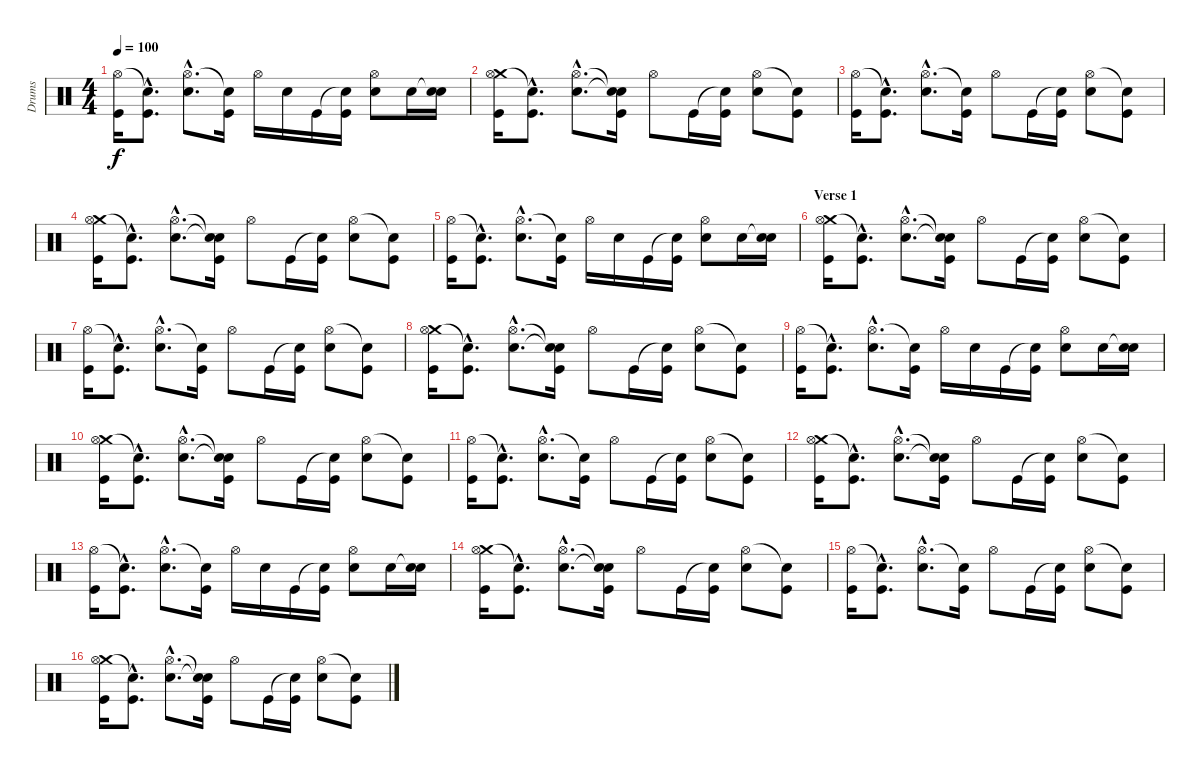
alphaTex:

\track ("Drums" "Drums") {instrument percussion}
\staff {score}
\articulation defaults
\ts (4 4)
\tempo 100
\clef neutral
\ks c
("Hi-Hat (open)" "Kick (hit)").16{dy f} ("Snare (hit)"{hac t} "Kick (hit)"{hac}).8{d} ("Hi-Hat (open)"{hac} "Electric Snare (hit)"{hac}).8{d} ("Snare (hit)"{t} "Kick (hit)").16 "Hi-Hat (open)".16 "Electric Snare (hit)".16 "Kick (hit)".16 ("Snare (hit)"{t} "Kick (hit)").16 ("Hi-Hat (open)" "Electric Snare (hit)").8 "Electric Snare (hit)".16 ("Snare (hit)"{t} "Electric Snare (hit)").16 |
("Crash medium (hit)" "Hi-Hat (open)" "Kick (hit)").16 ("Snare (hit)"{hac t} "Kick (hit)"{hac}).8{d} ("Hi-Hat (open)"{hac} "Electric Snare (hit)"{hac}).8{d} ("Snare (hit)"{t} "Snare (hit)"{t} "Kick (hit)").16 "Hi-Hat (open)".8 "Kick (hit)".16 ("Snare (hit)"{t} "Kick (hit)").16 ("Hi-Hat (open)" "Electric Snare (hit)").8 ("Snare (hit)"{t} "Kick (hit)").8 |
("Hi-Hat (open)" "Kick (hit)").16 ("Snare (hit)"{hac t} "Kick (hit)"{hac}).8{d} ("Hi-Hat (open)"{hac} "Electric Snare (hit)"{hac}).8{d} ("Snare (hit)"{t} "Kick (hit)").16 "Hi-Hat (open)".8 "Kick (hit)".16 ("Snare (hit)"{t} "Kick (hit)").16 ("Hi-Hat (open)" "Electric Snare (hit)").8 ("Snare (hit)"{t} "Kick (hit)").8 |
("Crash medium (hit)" "Hi-Hat (open)" "Kick (hit)").16 ("Snare (hit)"{hac t} "Kick (hit)"{hac}).8{d} ("Hi-Hat (open)"{hac} "Electric Snare (hit)"{hac}).8{d} ("Snare (hit)"{t} "Snare (hit)"{t} "Kick (hit)").16 "Hi-Hat (open)".8 "Kick (hit)".16 ("Snare (hit)"{t} "Kick (hit)").16 ("Hi-Hat (open)" "Electric Snare (hit)").8 ("Snare (hit)"{t} "Kick (hit)").8 |
("Hi-Hat (open)" "Kick (hit)").16 ("Snare (hit)"{hac t} "Kick (hit)"{hac}).8{d} ("Hi-Hat (open)"{hac} "Electric Snare (hit)"{hac}).8{d} ("Snare (hit)"{t} "Kick (hit)").16 "Hi-Hat (open)".16 "Electric Snare (hit)".16 "Kick (hit)".16 ("Snare (hit)"{t} "Kick (hit)").16 ("Hi-Hat (open)" "Electric Snare (hit)").8 "Electric Snare (hit)".16 ("Snare (hit)"{t} "Electric Snare (hit)").16 |
\section ("" "Verse 1")
("Crash medium (hit)" "Hi-Hat (open)" "Kick (hit)").16 ("Snare (hit)"{hac t} "Kick (hit)"{hac}).8{d} ("Hi-Hat (open)"{hac} "Electric Snare (hit)"{hac}).8{d} ("Snare (hit)"{t} "Snare (hit)"{t} "Kick (hit)").16 "Hi-Hat (open)".8 "Kick (hit)".16 ("Snare (hit)"{t} "Kick (hit)").16 ("Hi-Hat (open)" "Electric Snare (hit)").8 ("Snare (hit)"{t} "Kick (hit)").8 |
("Hi-Hat (open)" "Kick (hit)").16 ("Snare (hit)"{hac t} "Kick (hit)"{hac}).8{d} ("Hi-Hat (open)"{hac} "Electric Snare (hit)"{hac}).8{d} ("Snare (hit)"{t} "Kick (hit)").16 "Hi-Hat (open)".8 "Kick (hit)".16 ("Snare (hit)"{t} "Kick (hit)").16 ("Hi-Hat (open)" "Electric Snare (hit)").8 ("Snare (hit)"{t} "Kick (hit)").8 |
("Crash medium (hit)" "Hi-Hat (open)" "Kick (hit)").16 ("Snare (hit)"{hac t} "Kick (hit)"{hac}).8{d} ("Hi-Hat (open)"{hac} "Electric Snare (hit)"{hac}).8{d} ("Snare (hit)"{t} "Snare (hit)"{t} "Kick (hit)").16 "Hi-Hat (open)".8 "Kick (hit)".16 ("Snare (hit)"{t} "Kick (hit)").16 ("Hi-Hat (open)" "Electric Snare (hit)").8 ("Snare (hit)"{t} "Kick (hit)").8 |
("Hi-Hat (open)" "Kick (hit)").16 ("Snare (hit)"{hac t} "Kick (hit)"{hac}).8{d} ("Hi-Hat (open)"{hac} "Electric Snare (hit)"{hac}).8{d} ("Snare (hit)"{t} "Kick (hit)").16 "Hi-Hat (open)".16 "Electric Snare (hit)".16 "Kick (hit)".16 ("Snare (hit)"{t} "Kick (hit)").16 ("Hi-Hat (open)" "Electric Snare (hit)").8 "Electric Snare (hit)".16 ("Snare (hit)"{t} "Electric Snare (hit)").16 |
("Crash medium (hit)" "Hi-Hat (open)" "Kick (hit)").16 ("Snare (hit)"{hac t} "Kick (hit)"{hac}).8{d} ("Hi-Hat (open)"{hac} "Electric Snare (hit)"{hac}).8{d} ("Snare (hit)"{t} "Snare (hit)"{t} "Kick (hit)").16 "Hi-Hat (open)".8 "Kick (hit)".16 ("Snare (hit)"{t} "Kick (hit)").16 ("Hi-Hat (open)" "Electric Snare (hit)").8 ("Snare (hit)"{t} "Kick (hit)").8 |
("Hi-Hat (open)" "Kick (hit)").16 ("Snare (hit)"{hac t} "Kick (hit)"{hac}).8{d} ("Hi-Hat (open)"{hac} "Electric Snare (hit)"{hac}).8{d} ("Snare (hit)"{t} "Kick (hit)").16 "Hi-Hat (open)".8 "Kick (hit)".16 ("Snare (hit)"{t} "Kick (hit)").16 ("Hi-Hat (open)" "Electric Snare (hit)").8 ("Snare (hit)"{t} "Kick (hit)").8 |
("Crash medium (hit)" "Hi-Hat (open)" "Kick (hit)").16 ("Snare (hit)"{hac t} "Kick (hit)"{hac}).8{d} ("Hi-Hat (open)"{hac} "Electric Snare (hit)"{hac}).8{d} ("Snare (hit)"{t} "Snare (hit)"{t} "Kick (hit)").16 "Hi-Hat (open)".8 "Kick (hit)".16 ("Snare (hit)"{t} "Kick (hit)").16 ("Hi-Hat (open)" "Electric Snare (hit)").8 ("Snare (hit)"{t} "Kick (hit)").8 |
("Hi-Hat (open)" "Kick (hit)").16 ("Snare (hit)"{hac t} "Kick (hit)"{hac}).8{d} ("Hi-Hat (open)"{hac} "Electric Snare (hit)"{hac}).8{d} ("Snare (hit)"{t} "Kick (hit)").16 "Hi-Hat (open)".16 "Electric Snare (hit)".16 "Kick (hit)".16 ("Snare (hit)"{t} "Kick (hit)").16 ("Hi-Hat (open)" "Electric Snare (hit)").8 "Electric Snare (hit)".16 ("Snare (hit)"{t} "Electric Snare (hit)").16 |
("Crash medium (hit)" "Hi-Hat (open)" "Kick (hit)").16 ("Snare (hit)"{hac t} "Kick (hit)"{hac}).8{d} ("Hi-Hat (open)"{hac} "Electric Snare (hit)"{hac}).8{d} ("Snare (hit)"{t} "Snare (hit)"{t} "Kick (hit)").16 "Hi-Hat (open)".8 "Kick (hit)".16 ("Snare (hit)"{t} "Kick (hit)").16 ("Hi-Hat (open)" "Electric Snare (hit)").8 ("Snare (hit)"{t} "Kick (hit)").8 |
("Hi-Hat (open)" "Kick (hit)").16 ("Snare (hit)"{hac t} "Kick (hit)"{hac}).8{d} ("Hi-Hat (open)"{hac} "Electric Snare (hit)"{hac}).8{d} ("Snare (hit)"{t} "Kick (hit)").16 "Hi-Hat (open)".8 "Kick (hit)".16 ("Snare (hit)"{t} "Kick (hit)").16 ("Hi-Hat (open)" "Electric Snare (hit)").8 ("Snare (hit)"{t} "Kick (hit)").8 |
("Crash medium (hit)" "Hi-Hat (open)" "Kick (hit)").16 ("Snare (hit)"{hac t} "Kick (hit)"{hac}).8{d} ("Hi-Hat (open)"{hac} "Electric Snare (hit)"{hac}).8{d} ("Snare (hit)"{t} "Snare (hit)"{t} "Kick (hit)").16 "Hi-Hat (open)".8 "Kick (hit)".16 ("Snare (hit)"{t} "Kick (hit)").16 ("Hi-Hat (open)" "Electric Snare (hit)").8 ("Snare (hit)"{t} "Kick (hit)").8
